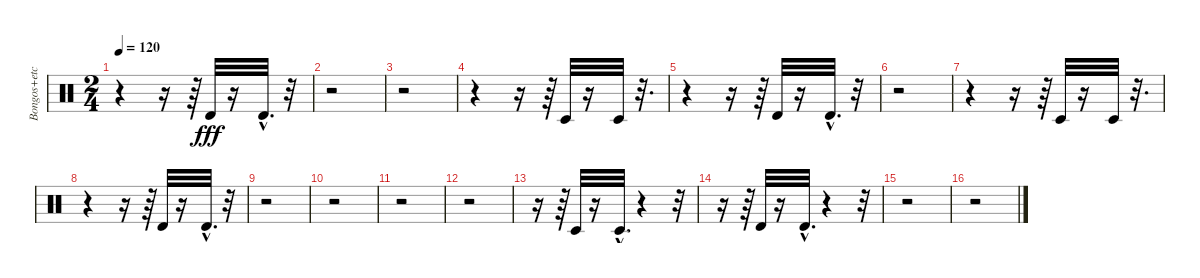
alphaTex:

\track ("Bongos+etc" "Bongos+etc") {instrument percussion}
\staff {score}
\articulation defaults
\ts (2 4)
\tempo 120
\clef neutral
\ks c
r.4{dy fff} r.16 r.64 "Timbale high (hit)".32 r.16 "Timbale high (hit)"{hac}.32{d} r.32 |
r.2 |
r.2 |
r.4 r.16 r.64 "Timbale low (hit)".32 r.16 "Timbale low (hit)".32 r.32{d} |
r.4 r.16 r.64 "Timbale high (hit)".32 r.16 "Timbale high (hit)"{hac}.32{d} r.32 |
r.2 |
r.4 r.16 r.64 "Timbale low (hit)".32 r.16 "Timbale low (hit)".32 r.32{d} |
r.4 r.16 r.64 "Timbale high (hit)".32 r.16 "Timbale high (hit)"{hac}.32{d} r.32 |
r.2 |
r.2 |
r.2 |
r.2 |
r.16 r.64 "Timbale low (hit)".32 r.16 "Timbale low (hit)"{hac}.32{d} r.4 r.32 |
r.16 r.64 "Timbale high (hit)".32 r.16 "Timbale high (hit)"{hac}.32{d} r.4 r.32 |
r.2 |
r.2
